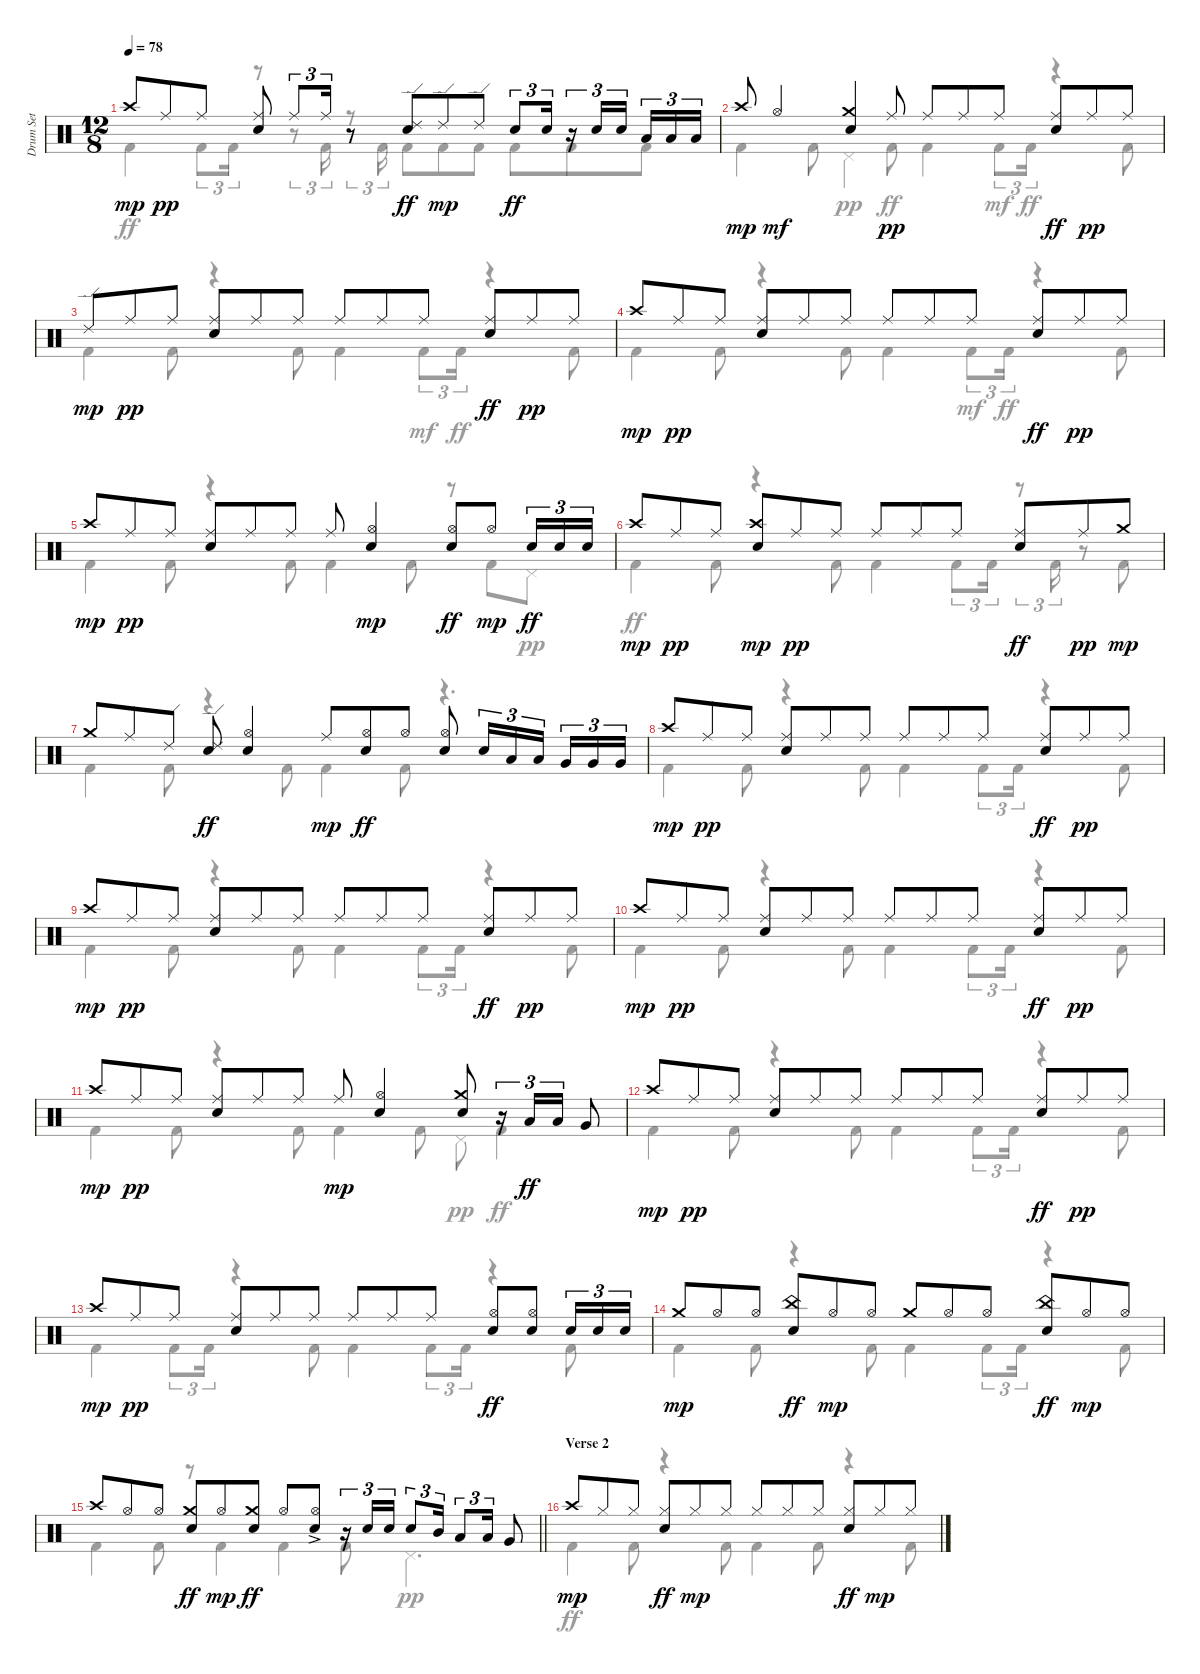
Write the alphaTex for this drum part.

\track ("Drum Set" "Drum Set") {instrument percussion}
\staff {score}
\articulation defaults
\voice
\ts (12 8)
\tempo 78
\clef neutral
\ks c "Crash high (hit)".8{dy mp} "Ride (middle)".8{dy pp} "Ride (middle)".8
("Electric Snare (hit)" "Ride (middle)").8 "Ride (middle)".8{tu (3 2)} "Ride (middle)".16{tu (3 2)} r.8 ("Ride (edge) 2" "Electric Snare (hit)").8{dy ff} "Ride (edge) 2".8{dy mp} "Ride (edge) 2".8 "Electric Snare (hit)".8{tu (3 2) dy ff} "Electric Snare (hit)".16{tu (3 2)} r.16{tu (3 2)} "Electric Snare (hit)".16{tu (3 2)} "Electric Snare (hit)".16{tu (3 2) beam splitsecondary} "Low Tom (hit)".16{tu (3 2)} "Low Tom (hit)".16{tu (3 2)} "Low Floor Tom (hit)".16{tu (3 2)} |
"Crash high (hit)".8{dy mp} "Hi-Hat (open)".4{dy mf} ("Electric Snare (hit)" "Crash medium (hit)").4 "Ride (middle)".8{dy pp} "Ride (middle)".8 "Ride (middle)".8 "Ride (middle)".8 ("Ride (middle)" "Electric Snare (hit)").8{dy ff} "Ride (middle)".8{dy pp} "Ride (middle)".8 |
"Ride (edge) 2".8{dy mp} "Ride (middle)".8{dy pp} "Ride (middle)".8 ("Electric Snare (hit)" "Ride (middle)").8 "Ride (middle)".8 "Ride (middle)".8 "Ride (middle)".8 "Ride (middle)".8 "Ride (middle)".8 ("Ride (middle)" "Electric Snare (hit)").8{dy ff} "Ride (middle)".8{dy pp} "Ride (middle)".8 |
"Crash high (hit)".8{dy mp} "Ride (middle)".8{dy pp} "Ride (middle)".8 ("Electric Snare (hit)" "Ride (middle)").8 "Ride (middle)".8 "Ride (middle)".8 "Ride (middle)".8 "Ride (middle)".8 "Ride (middle)".8 ("Ride (middle)" "Electric Snare (hit)").8{dy ff} "Ride (middle)".8{dy pp} "Ride (middle)".8 |
"Crash high (hit)".8{dy mp} "Ride (middle)".8{dy pp} "Ride (middle)".8 ("Electric Snare (hit)" "Ride (middle)").8 "Ride (middle)".8 "Ride (middle)".8 "Ride (middle)".8 ("Electric Snare (hit)" "Hi-Hat (open)").4{dy mp} ("Hi-Hat (open)" "Electric Snare (hit)").8{dy ff} "Hi-Hat (open)".8{dy mp} "Electric Snare (hit)".16{tu (3 2) dy ff} "Electric Snare (hit)".16{tu (3 2)} "Electric Snare (hit)".16{tu (3 2)} |
"Crash high (hit)".8{dy mp} "Ride (middle)".8{dy pp} "Ride (middle)".8 ("Electric Snare (hit)" "Crash high (hit)").8{dy mp} "Ride (middle)".8{dy pp} "Ride (middle)".8 "Ride (middle)".8 "Ride (middle)".8 "Ride (middle)".8 ("Ride (middle)" "Electric Snare (hit)").8{dy ff} "Ride (middle)".8{dy pp} "Crash medium (hit)".8{dy mp} |
"Crash medium (hit)".8 "Ride (middle)".8 "Ride (edge) 2".8 ("Ride (edge) 2" "Electric Snare (hit)").8{dy ff} ("Hi-Hat (open)" "Electric Snare (hit)").4 "Ride (middle)".8{dy mp} ("Hi-Hat (open)" "Electric Snare (hit)").8{dy ff} "Hi-Hat (open)".8 ("Electric Snare (hit)" "Hi-Hat (open)").8 "Electric Snare (hit)".16{tu (3 2)} "Low Tom (hit)".16{tu (3 2)} "Low Tom (hit)".16{tu (3 2) beam splitsecondary} "Very Low Tom (hit)".16{tu (3 2)} "Very Low Tom (hit)".16{tu (3 2)} "Very Low Tom (hit)".16{tu (3 2)} |
"Crash high (hit)".8{dy mp} "Ride (middle)".8{dy pp} "Ride (middle)".8 ("Electric Snare (hit)" "Ride (middle)").8 "Ride (middle)".8 "Ride (middle)".8 "Ride (middle)".8 "Ride (middle)".8 "Ride (middle)".8 ("Ride (middle)" "Electric Snare (hit)").8{dy ff} "Ride (middle)".8{dy pp} "Ride (middle)".8 |
"Crash high (hit)".8{dy mp} "Ride (middle)".8{dy pp} "Ride (middle)".8 ("Electric Snare (hit)" "Ride (middle)").8 "Ride (middle)".8 "Ride (middle)".8 "Ride (middle)".8 "Ride (middle)".8 "Ride (middle)".8 ("Ride (middle)" "Electric Snare (hit)").8{dy ff} "Ride (middle)".8{dy pp} "Ride (middle)".8 |
"Crash high (hit)".8{dy mp} "Ride (middle)".8{dy pp} "Ride (middle)".8 ("Electric Snare (hit)" "Ride (middle)").8 "Ride (middle)".8 "Ride (middle)".8 "Ride (middle)".8 "Ride (middle)".8 "Ride (middle)".8 ("Ride (middle)" "Electric Snare (hit)").8{dy ff} "Ride (middle)".8{dy pp} "Ride (middle)".8 |
"Crash high (hit)".8{dy mp} "Ride (middle)".8{dy pp} "Ride (middle)".8 ("Electric Snare (hit)" "Ride (middle)").8 "Ride (middle)".8 "Ride (middle)".8 "Ride (middle)".8{dy mp} ("Electric Snare (hit)" "Hi-Hat (open)").4 ("Electric Snare (hit)" "Crash medium (hit)").8 r.16{tu (3 2)} "Low Tom (hit)".16{tu (3 2) dy ff} "Low Tom (hit)".16{tu (3 2)} "Very Low Tom (hit)".8 |
"Crash high (hit)".8{dy mp} "Ride (middle)".8{dy pp} "Ride (middle)".8 ("Electric Snare (hit)" "Ride (middle)").8 "Ride (middle)".8 "Ride (middle)".8 "Ride (middle)".8 "Ride (middle)".8 "Ride (middle)".8 ("Ride (middle)" "Electric Snare (hit)").8{dy ff} "Ride (middle)".8{dy pp} "Ride (middle)".8 |
"Crash high (hit)".8{dy mp} "Ride (middle)".8{dy pp} "Ride (middle)".8 ("Electric Snare (hit)" "Ride (middle)").8 "Ride (middle)".8 "Ride (middle)".8 "Ride (middle)".8 "Ride (middle)".8 "Ride (middle)".8 ("Hi-Hat (open)" "Electric Snare (hit)").8{dy ff} ("Electric Snare (hit)" "Hi-Hat (open)").8 "Electric Snare (hit)".16{tu (3 2)} "Electric Snare (hit)".16{tu (3 2)} "Electric Snare (hit)".16{tu (3 2)} |
"Crash medium (hit)".8{dy mp} "Hi-Hat (open)".8 "Hi-Hat (open)".8 ("China (hit)" "Electric Snare (hit)").8{dy ff} "Hi-Hat (open)".8{dy mp} "Hi-Hat (open)".8 "Crash medium (hit)".8 "Hi-Hat (open)".8 "Hi-Hat (open)".8 ("China (hit)" "Electric Snare (hit)").8{dy ff} "Hi-Hat (open)".8{dy mp} "Hi-Hat (open)".8 |
\barLineRight lightlight "Crash high (hit)".8 "Hi-Hat (open)".8 "Hi-Hat (open)".8
("Crash medium (hit)" "Electric Snare (hit)").8{dy ff} "Hi-Hat (open)".8{dy mp} ("Crash medium (hit)" "Electric Snare (hit)").8{dy ff} "Hi-Hat (open)".8 ("Hi-Hat (open)"{ac} "Electric Snare (hit)").8 r.16{tu (3 2)} "Electric Snare (hit)".16{tu (3 2)} "Electric Snare (hit)".16{tu (3 2)} "Electric Snare (hit)".8{tu (3 2)} "Mid Tom (hit)".16{tu (3 2)} "Low Tom (hit)".8{tu (3 2)} "Low Tom (hit)".16{tu (3 2)} "Very Low Tom (hit)".8 |
\section ("" "Verse 2")
"Crash high (hit)".8{dy mp} "Hi-Hat (closed)".8 "Hi-Hat (closed)".8 ("Hi-Hat (closed)" "Electric Snare (hit)").8{dy ff} "Hi-Hat (closed)".8{dy mp} "Hi-Hat (closed)".8 "Hi-Hat (closed)".8 "Hi-Hat (closed)".8 "Hi-Hat (closed)".8 ("Hi-Hat (closed)" "Electric Snare (hit)").8{dy ff} "Hi-Hat (closed)".8{dy mp} "Hi-Hat (closed)".8
\voice
\clef neutral
\ottava regular
\simile none
\ks c "Kick (hit) 2".4{dy ff} "Kick (hit) 2".8{tu (3 2)} "Kick (hit) 2".16{tu (3 2)}
r.8 r.8{tu (3 2)} "Kick (hit) 2".16{tu (3 2)} r.8{tu (3 2)} "Kick (hit) 2".16{tu (3 2)} "Kick (hit) 2".8 "Kick (hit) 2".8 "Kick (hit) 2".8 "Kick (hit) 2".8 "Kick (hit) 2".8 "Kick (hit) 2".8 |
"Kick (hit) 2".4 "Kick (hit) 2".8 "Pedal Hi-Hat (hit)".4{dy pp} "Kick (hit) 2".8{dy ff} "Kick (hit) 2".4 "Kick (hit) 2".8{tu (3 2) dy mf} "Kick (hit) 2".16{tu (3 2) dy ff} r.4 "Kick (hit) 2".8 |
"Kick (hit) 2".4 "Kick (hit) 2".8 r.4 "Kick (hit) 2".8 "Kick (hit) 2".4 "Kick (hit) 2".8{tu (3 2) dy mf} "Kick (hit) 2".16{tu (3 2) dy ff} r.4 "Kick (hit) 2".8 |
"Kick (hit) 2".4 "Kick (hit) 2".8 r.4 "Kick (hit) 2".8 "Kick (hit) 2".4 "Kick (hit) 2".8{tu (3 2) dy mf} "Kick (hit) 2".16{tu (3 2) dy ff} r.4 "Kick (hit) 2".8 |
"Kick (hit) 2".4 "Kick (hit) 2".8 r.4 "Kick (hit) 2".8 "Kick (hit) 2".4 "Kick (hit) 2".8 r.8 "Kick (hit) 2".8 "Pedal Hi-Hat (hit)".8{dy pp} |
"Kick (hit) 2".4{dy ff} "Kick (hit) 2".8 r.4 "Kick (hit) 2".8 "Kick (hit) 2".4 "Kick (hit) 2".8{tu (3 2)} "Kick (hit) 2".16{tu (3 2)} r.8{tu (3 2)} "Kick (hit) 2".16{tu (3 2)} r.8 "Kick (hit) 2".8 |
"Kick (hit) 2".4 "Kick (hit) 2".8 r.4 "Kick (hit) 2".8 "Kick (hit) 2".4 "Kick (hit) 2".8 r.4{d} |
"Kick (hit) 2".4 "Kick (hit) 2".8 r.4 "Kick (hit) 2".8 "Kick (hit) 2".4 "Kick (hit) 2".8{tu (3 2)} "Kick (hit) 2".16{tu (3 2)} r.4 "Kick (hit) 2".8 |
"Kick (hit) 2".4 "Kick (hit) 2".8 r.4 "Kick (hit) 2".8 "Kick (hit) 2".4 "Kick (hit) 2".8{tu (3 2)} "Kick (hit) 2".16{tu (3 2)} r.4 "Kick (hit) 2".8 |
"Kick (hit) 2".4 "Kick (hit) 2".8 r.4 "Kick (hit) 2".8 "Kick (hit) 2".4 "Kick (hit) 2".8{tu (3 2)} "Kick (hit) 2".16{tu (3 2)} r.4 "Kick (hit) 2".8 |
"Kick (hit) 2".4 "Kick (hit) 2".8 r.4 "Kick (hit) 2".8 "Kick (hit) 2".4 "Kick (hit) 2".8 "Pedal Hi-Hat (hit)".8{dy pp} "Kick (hit) 2".4{dy ff} |
"Kick (hit) 2".4 "Kick (hit) 2".8 r.4 "Kick (hit) 2".8 "Kick (hit) 2".4 "Kick (hit) 2".8{tu (3 2)} "Kick (hit) 2".16{tu (3 2)} r.4 "Kick (hit) 2".8 |
"Kick (hit) 2".4 "Kick (hit) 2".8{tu (3 2)} "Kick (hit) 2".16{tu (3 2)} r.4 "Kick (hit) 2".8 "Kick (hit) 2".4 "Kick (hit) 2".8{tu (3 2)} "Kick (hit) 2".16{tu (3 2)} r.4 "Kick (hit) 2".8 |
"Kick (hit) 2".4 "Kick (hit) 2".8 r.4 "Kick (hit) 2".8 "Kick (hit) 2".4 "Kick (hit) 2".8{tu (3 2)} "Kick (hit) 2".16{tu (3 2)} r.4 "Kick (hit) 2".8 |
\barLineRight lightlight "Kick (hit) 2".4 "Kick (hit) 2".8
r.8 "Kick (hit) 2".4 "Kick (hit) 2".4 "Kick (hit) 2".8 "Pedal Hi-Hat (hit)".4{d dy pp} |
"Kick (hit) 2".4{dy ff} "Kick (hit) 2".8 r.4 "Kick (hit) 2".8 "Kick (hit) 2".4 "Kick (hit) 2".8 r.4 "Kick (hit) 2".8
